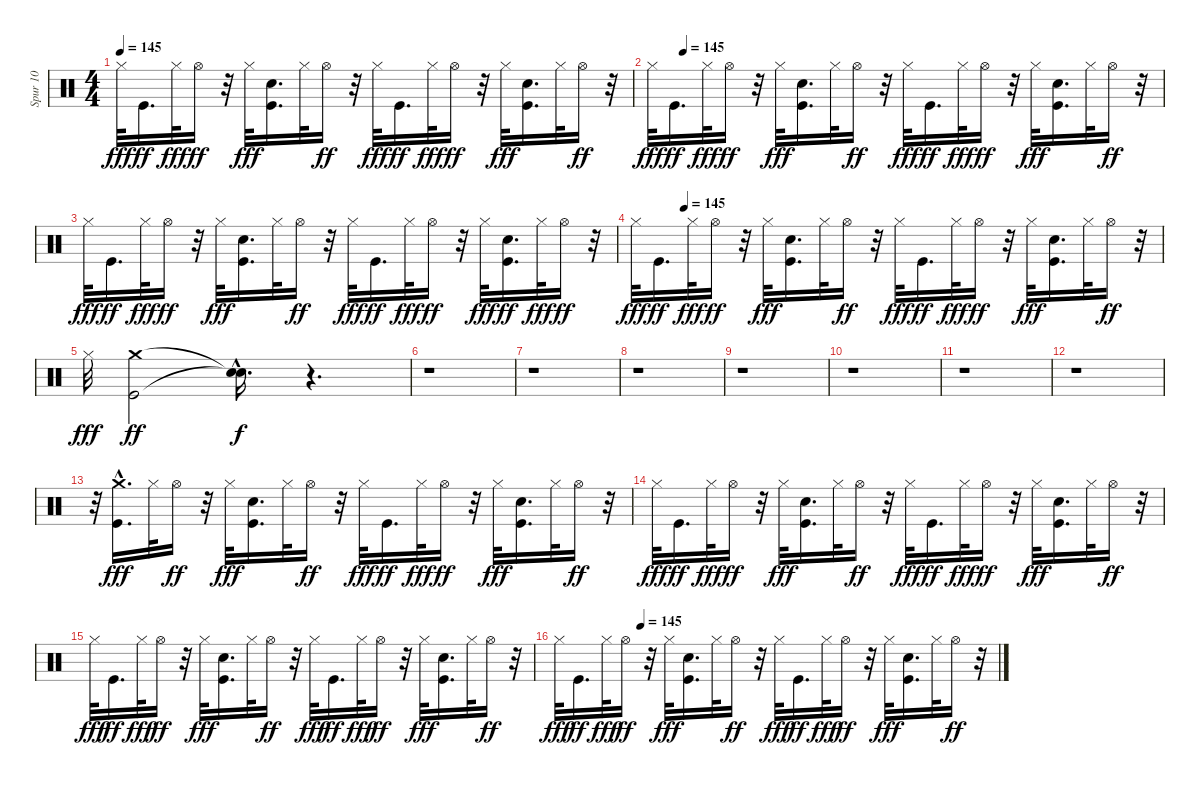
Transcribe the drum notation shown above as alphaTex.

\track ("Spur 10" "Spur 10") {instrument percussion}
\staff {score}
\articulation defaults
\ts (4 4)
\tempo 145
\clef neutral
\ks c "Hi-Hat (closed)".32{dy fff} "Kick (hit)".16{d dy ff} "Hi-Hat (closed)".32{dy fff} "Hi-Hat (open)".16{dy ff}
r.32 "Hi-Hat (closed)".32{dy fff} ("Kick (hit)" "Hand Clap (hit)").16{d} "Hi-Hat (closed)".32 "Hi-Hat (open)".16{dy ff} r.32 "Hi-Hat (closed)".32{dy fff} "Kick (hit)".16{d dy ff} "Hi-Hat (closed)".32{dy fff} "Hi-Hat (open)".16{dy ff} r.32 "Hi-Hat (closed)".32{dy fff} ("Kick (hit)" "Hand Clap (hit)").16{d} "Hi-Hat (closed)".32 "Hi-Hat (open)".16{dy ff} r.32 |
\tempo (145 0.0625)
"Hi-Hat (closed)".32{dy fff} "Kick (hit)".16{d dy ff} "Hi-Hat (closed)".32{dy fff} "Hi-Hat (open)".16{dy ff} r.32 "Hi-Hat (closed)".32{dy fff} ("Kick (hit)" "Hand Clap (hit)").16{d} "Hi-Hat (closed)".32 "Hi-Hat (open)".16{dy ff} r.32 "Hi-Hat (closed)".32{dy fff} "Kick (hit)".16{d dy ff} "Hi-Hat (closed)".32{dy fff} "Hi-Hat (open)".16{dy ff} r.32 "Hi-Hat (closed)".32{dy fff} ("Kick (hit)" "Hand Clap (hit)").16{d} "Hi-Hat (closed)".32 "Hi-Hat (open)".16{dy ff} r.32 |
"Hi-Hat (closed)".32{dy fff} "Kick (hit)".16{d dy ff} "Hi-Hat (closed)".32{dy fff} "Hi-Hat (open)".16{dy ff} r.32 "Hi-Hat (closed)".32{dy fff} ("Kick (hit)" "Hand Clap (hit)").16{d} "Hi-Hat (closed)".32 "Hi-Hat (open)".16{dy ff} r.32 "Hi-Hat (closed)".32{dy fff} "Kick (hit)".16{d dy ff} "Hi-Hat (closed)".32{dy fff} "Hi-Hat (open)".16{dy ff} r.32 "Hi-Hat (closed)".32{dy fff} ("Hand Clap (hit)" "Kick (hit)").16{d dy ff} "Hi-Hat (closed)".32{dy fff} "Hi-Hat (open)".16{dy ff} r.32 |
\tempo (145 0.09375)
"Hi-Hat (closed)".32{dy fff} "Kick (hit)".16{d dy ff} "Hi-Hat (closed)".32{dy fff} "Hi-Hat (open)".16{dy ff} r.32 "Hi-Hat (closed)".32{dy fff} ("Kick (hit)" "Hand Clap (hit)").16{d} "Hi-Hat (closed)".32 "Hi-Hat (open)".16{dy ff} r.32 "Hi-Hat (closed)".32{dy fff} "Kick (hit)".16{d dy ff} "Hi-Hat (closed)".32{dy fff} "Hi-Hat (open)".16{dy ff} r.32 "Hi-Hat (closed)".32{dy fff} ("Kick (hit)" "Hand Clap (hit)").16{d} "Hi-Hat (closed)".32 "Hi-Hat (open)".16{dy ff} r.32 |
"Hi-Hat (closed)".32{dy fff} ("Crash medium (hit)" "Kick (hit)").2{dy ff} ("Snare (hit)"{hac t} "Snare (hit)"{hac t}).16{d dy f} r.4{d} |
r.1 |
r.1 |
r.1 |
r.1 |
r.1 |
r.1 |
r.1 |
r.32 ("Kick (hit)" "Crash medium (hit)"{hac}).16{d dy fff} "Hi-Hat (closed)".32 "Hi-Hat (open)".16{dy ff} r.32 "Hi-Hat (closed)".32{dy fff} ("Kick (hit)" "Hand Clap (hit)").16{d} "Hi-Hat (closed)".32 "Hi-Hat (open)".16{dy ff} r.32 "Hi-Hat (closed)".32{dy fff} "Kick (hit)".16{d dy ff} "Hi-Hat (closed)".32{dy fff} "Hi-Hat (open)".16{dy ff} r.32 "Hi-Hat (closed)".32{dy fff} ("Kick (hit)" "Hand Clap (hit)").16{d} "Hi-Hat (closed)".32 "Hi-Hat (open)".16{dy ff} r.32 |
"Hi-Hat (closed)".32{dy fff} "Kick (hit)".16{d dy ff} "Hi-Hat (closed)".32{dy fff} "Hi-Hat (open)".16{dy ff} r.32 "Hi-Hat (closed)".32{dy fff} ("Kick (hit)" "Hand Clap (hit)").16{d} "Hi-Hat (closed)".32 "Hi-Hat (open)".16{dy ff} r.32 "Hi-Hat (closed)".32{dy fff} "Kick (hit)".16{d dy ff} "Hi-Hat (closed)".32{dy fff} "Hi-Hat (open)".16{dy ff} r.32 "Hi-Hat (closed)".32{dy fff} ("Kick (hit)" "Hand Clap (hit)").16{d} "Hi-Hat (closed)".32 "Hi-Hat (open)".16{dy ff} r.32 |
"Hi-Hat (closed)".32{dy fff} "Kick (hit)".16{d dy ff} "Hi-Hat (closed)".32{dy fff} "Hi-Hat (open)".16{dy ff} r.32 "Hi-Hat (closed)".32{dy fff} ("Kick (hit)" "Hand Clap (hit)").16{d} "Hi-Hat (closed)".32 "Hi-Hat (open)".16{dy ff} r.32 "Hi-Hat (closed)".32{dy fff} "Kick (hit)".16{d dy ff} "Hi-Hat (closed)".32{dy fff} "Hi-Hat (open)".16{dy ff} r.32 "Hi-Hat (closed)".32{dy fff} ("Kick (hit)" "Hand Clap (hit)").16{d} "Hi-Hat (closed)".32 "Hi-Hat (open)".16{dy ff} r.32 |
\tempo (145 0.1875)
"Hi-Hat (closed)".32{dy fff} "Kick (hit)".16{d dy ff} "Hi-Hat (closed)".32{dy fff} "Hi-Hat (open)".16{dy ff} r.32 "Hi-Hat (closed)".32{dy fff} ("Kick (hit)" "Hand Clap (hit)").16{d} "Hi-Hat (closed)".32 "Hi-Hat (open)".16{dy ff} r.32 "Hi-Hat (closed)".32{dy fff} "Kick (hit)".16{d dy ff} "Hi-Hat (closed)".32{dy fff} "Hi-Hat (open)".16{dy ff} r.32 "Hi-Hat (closed)".32{dy fff} ("Kick (hit)" "Hand Clap (hit)").16{d} "Hi-Hat (closed)".32 "Hi-Hat (open)".16{dy ff} r.32
